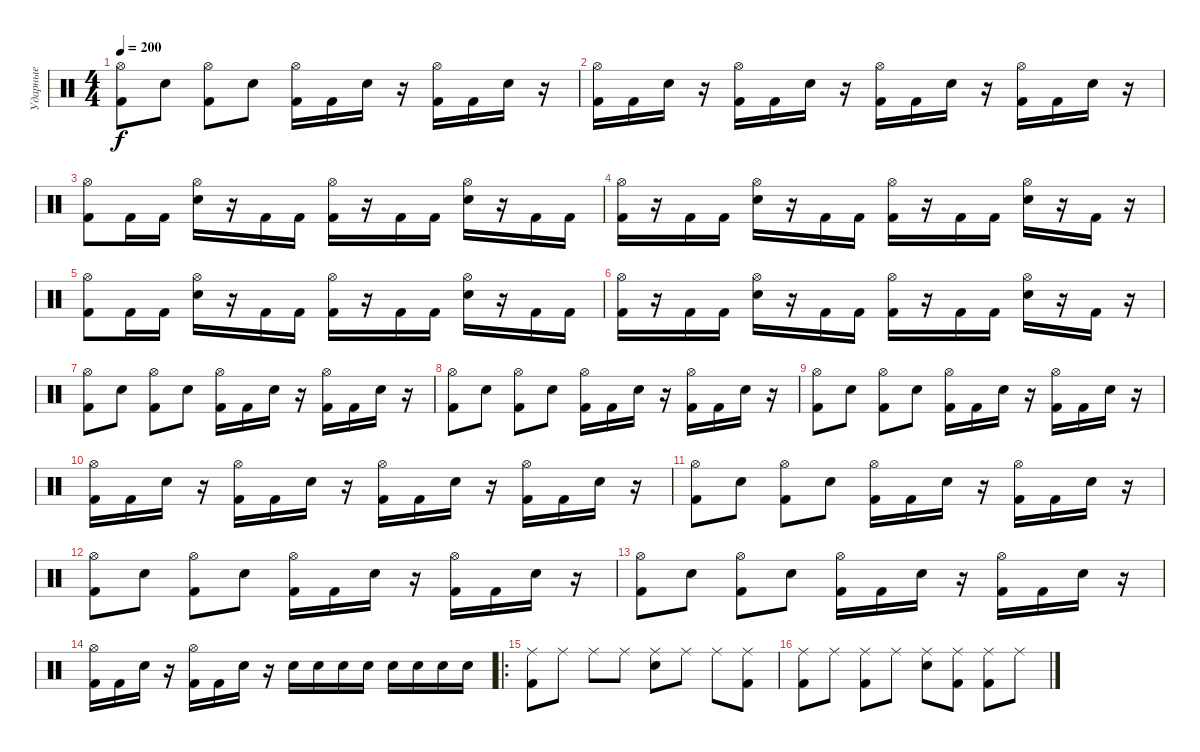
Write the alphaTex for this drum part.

\track ("Ударные" "Ударные") {instrument percussion}
\staff {score}
\articulation defaults
\ts (4 4)
\tempo 200
\clef neutral
\ks c
("Kick (hit) 2" "Hi-Hat (open)").8{dy f} "Electric Snare (hit)".8 ("Kick (hit) 2" "Hi-Hat (open)").8 "Electric Snare (hit)".8 ("Kick (hit) 2" "Hi-Hat (open)").16 "Kick (hit) 2".16 "Electric Snare (hit)".16 r.16 ("Kick (hit) 2" "Hi-Hat (open)").16 "Kick (hit) 2".16 "Electric Snare (hit)".16 r.16 |
("Kick (hit) 2" "Hi-Hat (open)").16 "Kick (hit) 2".16 "Electric Snare (hit)".16 r.16 ("Kick (hit) 2" "Hi-Hat (open)").16 "Kick (hit) 2".16 "Electric Snare (hit)".16 r.16 ("Kick (hit) 2" "Hi-Hat (open)").16 "Kick (hit) 2".16 "Electric Snare (hit)".16 r.16 ("Kick (hit) 2" "Hi-Hat (open)").16 "Kick (hit) 2".16 "Electric Snare (hit)".16 r.16 |
("Kick (hit) 2" "Hi-Hat (open)").8 "Kick (hit) 2".16 "Kick (hit) 2".16 ("Electric Snare (hit)" "Hi-Hat (open)").16 r.16 "Kick (hit) 2".16 "Kick (hit) 2".16 ("Kick (hit) 2" "Hi-Hat (open)").16 r.16 "Kick (hit) 2".16 "Kick (hit) 2".16 ("Electric Snare (hit)" "Hi-Hat (open)").16 r.16 "Kick (hit) 2".16 "Kick (hit) 2".16 |
("Kick (hit) 2" "Hi-Hat (open)").16 r.16 "Kick (hit) 2".16 "Kick (hit) 2".16 ("Electric Snare (hit)" "Hi-Hat (open)").16 r.16 "Kick (hit) 2".16 "Kick (hit) 2".16 ("Kick (hit) 2" "Hi-Hat (open)").16 r.16 "Kick (hit) 2".16 "Kick (hit) 2".16 ("Electric Snare (hit)" "Hi-Hat (open)").16 r.16 "Kick (hit) 2".16 r.16 |
("Kick (hit) 2" "Hi-Hat (open)").8 "Kick (hit) 2".16 "Kick (hit) 2".16 ("Electric Snare (hit)" "Hi-Hat (open)").16 r.16 "Kick (hit) 2".16 "Kick (hit) 2".16 ("Kick (hit) 2" "Hi-Hat (open)").16 r.16 "Kick (hit) 2".16 "Kick (hit) 2".16 ("Electric Snare (hit)" "Hi-Hat (open)").16 r.16 "Kick (hit) 2".16 "Kick (hit) 2".16 |
("Kick (hit) 2" "Hi-Hat (open)").16 r.16 "Kick (hit) 2".16 "Kick (hit) 2".16 ("Electric Snare (hit)" "Hi-Hat (open)").16 r.16 "Kick (hit) 2".16 "Kick (hit) 2".16 ("Kick (hit) 2" "Hi-Hat (open)").16 r.16 "Kick (hit) 2".16 "Kick (hit) 2".16 ("Electric Snare (hit)" "Hi-Hat (open)").16 r.16 "Kick (hit) 2".16 r.16 |
("Kick (hit) 2" "Hi-Hat (open)").8 "Electric Snare (hit)".8 ("Kick (hit) 2" "Hi-Hat (open)").8 "Electric Snare (hit)".8 ("Kick (hit) 2" "Hi-Hat (open)").16 "Kick (hit) 2".16 "Electric Snare (hit)".16 r.16 ("Kick (hit) 2" "Hi-Hat (open)").16 "Kick (hit) 2".16 "Electric Snare (hit)".16 r.16 |
("Kick (hit) 2" "Hi-Hat (open)").8 "Electric Snare (hit)".8 ("Kick (hit) 2" "Hi-Hat (open)").8 "Electric Snare (hit)".8 ("Kick (hit) 2" "Hi-Hat (open)").16 "Kick (hit) 2".16 "Electric Snare (hit)".16 r.16 ("Kick (hit) 2" "Hi-Hat (open)").16 "Kick (hit) 2".16 "Electric Snare (hit)".16 r.16 |
("Kick (hit) 2" "Hi-Hat (open)").8 "Electric Snare (hit)".8 ("Kick (hit) 2" "Hi-Hat (open)").8 "Electric Snare (hit)".8 ("Kick (hit) 2" "Hi-Hat (open)").16 "Kick (hit) 2".16 "Electric Snare (hit)".16 r.16 ("Kick (hit) 2" "Hi-Hat (open)").16 "Kick (hit) 2".16 "Electric Snare (hit)".16 r.16 |
("Kick (hit) 2" "Hi-Hat (open)").16 "Kick (hit) 2".16 "Electric Snare (hit)".16 r.16 ("Kick (hit) 2" "Hi-Hat (open)").16 "Kick (hit) 2".16 "Electric Snare (hit)".16 r.16 ("Kick (hit) 2" "Hi-Hat (open)").16 "Kick (hit) 2".16 "Electric Snare (hit)".16 r.16 ("Kick (hit) 2" "Hi-Hat (open)").16 "Kick (hit) 2".16 "Electric Snare (hit)".16 r.16 |
("Kick (hit) 2" "Hi-Hat (open)").8 "Electric Snare (hit)".8 ("Kick (hit) 2" "Hi-Hat (open)").8 "Electric Snare (hit)".8 ("Kick (hit) 2" "Hi-Hat (open)").16 "Kick (hit) 2".16 "Electric Snare (hit)".16 r.16 ("Kick (hit) 2" "Hi-Hat (open)").16 "Kick (hit) 2".16 "Electric Snare (hit)".16 r.16 |
("Kick (hit) 2" "Hi-Hat (open)").8 "Electric Snare (hit)".8 ("Kick (hit) 2" "Hi-Hat (open)").8 "Electric Snare (hit)".8 ("Kick (hit) 2" "Hi-Hat (open)").16 "Kick (hit) 2".16 "Electric Snare (hit)".16 r.16 ("Kick (hit) 2" "Hi-Hat (open)").16 "Kick (hit) 2".16 "Electric Snare (hit)".16 r.16 |
("Kick (hit) 2" "Hi-Hat (open)").8 "Electric Snare (hit)".8 ("Kick (hit) 2" "Hi-Hat (open)").8 "Electric Snare (hit)".8 ("Kick (hit) 2" "Hi-Hat (open)").16 "Kick (hit) 2".16 "Electric Snare (hit)".16 r.16 ("Kick (hit) 2" "Hi-Hat (open)").16 "Kick (hit) 2".16 "Electric Snare (hit)".16 r.16 |
("Kick (hit) 2" "Hi-Hat (open)").16 "Kick (hit) 2".16 "Electric Snare (hit)".16 r.16 ("Kick (hit) 2" "Hi-Hat (open)").16 "Kick (hit) 2".16 "Electric Snare (hit)".16 r.16 "Electric Snare (hit)".16 "Electric Snare (hit)".16 "Electric Snare (hit)".16 "Electric Snare (hit)".16 "Electric Snare (hit)".16 "Electric Snare (hit)".16 "Electric Snare (hit)".16 "Electric Snare (hit)".16 |
\ro
("Kick (hit) 2" "Ride (middle)").8 "Ride (middle)".8 "Ride (middle)".8 "Ride (middle)".8 ("Electric Snare (hit)" "Ride (middle)").8 "Ride (middle)".8 "Ride (middle)".8 ("Kick (hit) 2" "Ride (middle)").8 |
("Kick (hit) 2" "Ride (middle)").8 "Ride (middle)".8 ("Kick (hit) 2" "Ride (middle)").8 "Ride (middle)".8 ("Electric Snare (hit)" "Ride (middle)").8 ("Kick (hit) 2" "Ride (middle)").8 ("Kick (hit) 2" "Ride (middle)").8 "Ride (middle)".8
